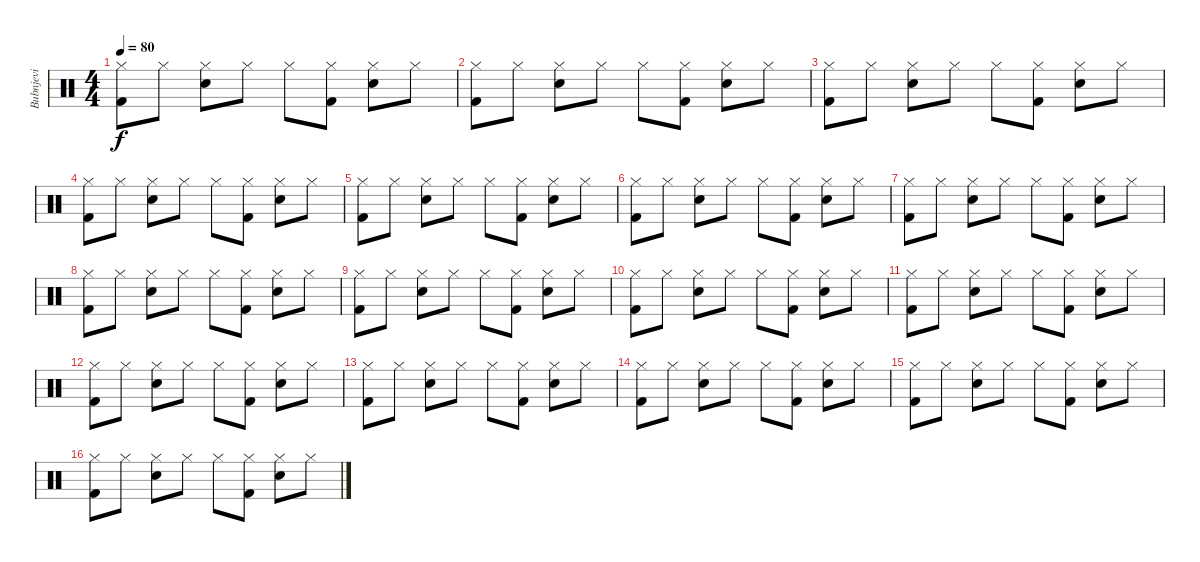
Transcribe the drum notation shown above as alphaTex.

\track ("Bubnjevi" "Bubnjevi") {instrument percussion}
\staff {score}
\articulation defaults
\ts (4 4)
\tempo 80
\clef neutral
\ks c
("Hi-Hat (closed)" "Kick (hit) 2").8{dy f} "Hi-Hat (closed)".8 ("Hi-Hat (closed)" "Electric Snare (hit)").8 "Hi-Hat (closed)".8 "Hi-Hat (closed)".8 ("Hi-Hat (closed)" "Kick (hit) 2").8 ("Hi-Hat (closed)" "Electric Snare (hit)").8 "Hi-Hat (closed)".8 |
("Hi-Hat (closed)" "Kick (hit) 2").8 "Hi-Hat (closed)".8 ("Hi-Hat (closed)" "Electric Snare (hit)").8 "Hi-Hat (closed)".8 "Hi-Hat (closed)".8 ("Hi-Hat (closed)" "Kick (hit) 2").8 ("Hi-Hat (closed)" "Electric Snare (hit)").8 "Hi-Hat (closed)".8 |
("Hi-Hat (closed)" "Kick (hit) 2").8 "Hi-Hat (closed)".8 ("Hi-Hat (closed)" "Electric Snare (hit)").8 "Hi-Hat (closed)".8 "Hi-Hat (closed)".8 ("Hi-Hat (closed)" "Kick (hit) 2").8 ("Hi-Hat (closed)" "Electric Snare (hit)").8 "Hi-Hat (closed)".8 |
("Hi-Hat (closed)" "Kick (hit) 2").8 "Hi-Hat (closed)".8 ("Hi-Hat (closed)" "Electric Snare (hit)").8 "Hi-Hat (closed)".8 "Hi-Hat (closed)".8 ("Hi-Hat (closed)" "Kick (hit) 2").8 ("Hi-Hat (closed)" "Electric Snare (hit)").8 "Hi-Hat (closed)".8 |
("Hi-Hat (closed)" "Kick (hit) 2").8 "Hi-Hat (closed)".8 ("Hi-Hat (closed)" "Electric Snare (hit)").8 "Hi-Hat (closed)".8 "Hi-Hat (closed)".8 ("Hi-Hat (closed)" "Kick (hit) 2").8 ("Hi-Hat (closed)" "Electric Snare (hit)").8 "Hi-Hat (closed)".8 |
("Hi-Hat (closed)" "Kick (hit) 2").8 "Hi-Hat (closed)".8 ("Hi-Hat (closed)" "Electric Snare (hit)").8 "Hi-Hat (closed)".8 "Hi-Hat (closed)".8 ("Hi-Hat (closed)" "Kick (hit) 2").8 ("Hi-Hat (closed)" "Electric Snare (hit)").8 "Hi-Hat (closed)".8 |
("Hi-Hat (closed)" "Kick (hit) 2").8 "Hi-Hat (closed)".8 ("Hi-Hat (closed)" "Electric Snare (hit)").8 "Hi-Hat (closed)".8 "Hi-Hat (closed)".8 ("Hi-Hat (closed)" "Kick (hit) 2").8 ("Hi-Hat (closed)" "Electric Snare (hit)").8 "Hi-Hat (closed)".8 |
("Hi-Hat (closed)" "Kick (hit) 2").8 "Hi-Hat (closed)".8 ("Hi-Hat (closed)" "Electric Snare (hit)").8 "Hi-Hat (closed)".8 "Hi-Hat (closed)".8 ("Hi-Hat (closed)" "Kick (hit) 2").8 ("Hi-Hat (closed)" "Electric Snare (hit)").8 "Hi-Hat (closed)".8 |
("Hi-Hat (closed)" "Kick (hit) 2").8 "Hi-Hat (closed)".8 ("Hi-Hat (closed)" "Electric Snare (hit)").8 "Hi-Hat (closed)".8 "Hi-Hat (closed)".8 ("Hi-Hat (closed)" "Kick (hit) 2").8 ("Hi-Hat (closed)" "Electric Snare (hit)").8 "Hi-Hat (closed)".8 |
("Hi-Hat (closed)" "Kick (hit) 2").8 "Hi-Hat (closed)".8 ("Hi-Hat (closed)" "Electric Snare (hit)").8 "Hi-Hat (closed)".8 "Hi-Hat (closed)".8 ("Hi-Hat (closed)" "Kick (hit) 2").8 ("Hi-Hat (closed)" "Electric Snare (hit)").8 "Hi-Hat (closed)".8 |
("Hi-Hat (closed)" "Kick (hit) 2").8 "Hi-Hat (closed)".8 ("Hi-Hat (closed)" "Electric Snare (hit)").8 "Hi-Hat (closed)".8 "Hi-Hat (closed)".8 ("Hi-Hat (closed)" "Kick (hit) 2").8 ("Hi-Hat (closed)" "Electric Snare (hit)").8 "Hi-Hat (closed)".8 |
("Hi-Hat (closed)" "Kick (hit) 2").8 "Hi-Hat (closed)".8 ("Hi-Hat (closed)" "Electric Snare (hit)").8 "Hi-Hat (closed)".8 "Hi-Hat (closed)".8 ("Hi-Hat (closed)" "Kick (hit) 2").8 ("Hi-Hat (closed)" "Electric Snare (hit)").8 "Hi-Hat (closed)".8 |
("Hi-Hat (closed)" "Kick (hit) 2").8 "Hi-Hat (closed)".8 ("Hi-Hat (closed)" "Electric Snare (hit)").8 "Hi-Hat (closed)".8 "Hi-Hat (closed)".8 ("Hi-Hat (closed)" "Kick (hit) 2").8 ("Hi-Hat (closed)" "Electric Snare (hit)").8 "Hi-Hat (closed)".8 |
("Hi-Hat (closed)" "Kick (hit) 2").8 "Hi-Hat (closed)".8 ("Hi-Hat (closed)" "Electric Snare (hit)").8 "Hi-Hat (closed)".8 "Hi-Hat (closed)".8 ("Hi-Hat (closed)" "Kick (hit) 2").8 ("Hi-Hat (closed)" "Electric Snare (hit)").8 "Hi-Hat (closed)".8 |
("Hi-Hat (closed)" "Kick (hit) 2").8 "Hi-Hat (closed)".8 ("Hi-Hat (closed)" "Electric Snare (hit)").8 "Hi-Hat (closed)".8 "Hi-Hat (closed)".8 ("Hi-Hat (closed)" "Kick (hit) 2").8 ("Hi-Hat (closed)" "Electric Snare (hit)").8 "Hi-Hat (closed)".8 |
("Hi-Hat (closed)" "Kick (hit) 2").8 "Hi-Hat (closed)".8 ("Hi-Hat (closed)" "Electric Snare (hit)").8 "Hi-Hat (closed)".8 "Hi-Hat (closed)".8 ("Hi-Hat (closed)" "Kick (hit) 2").8 ("Hi-Hat (closed)" "Electric Snare (hit)").8 "Hi-Hat (closed)".8
